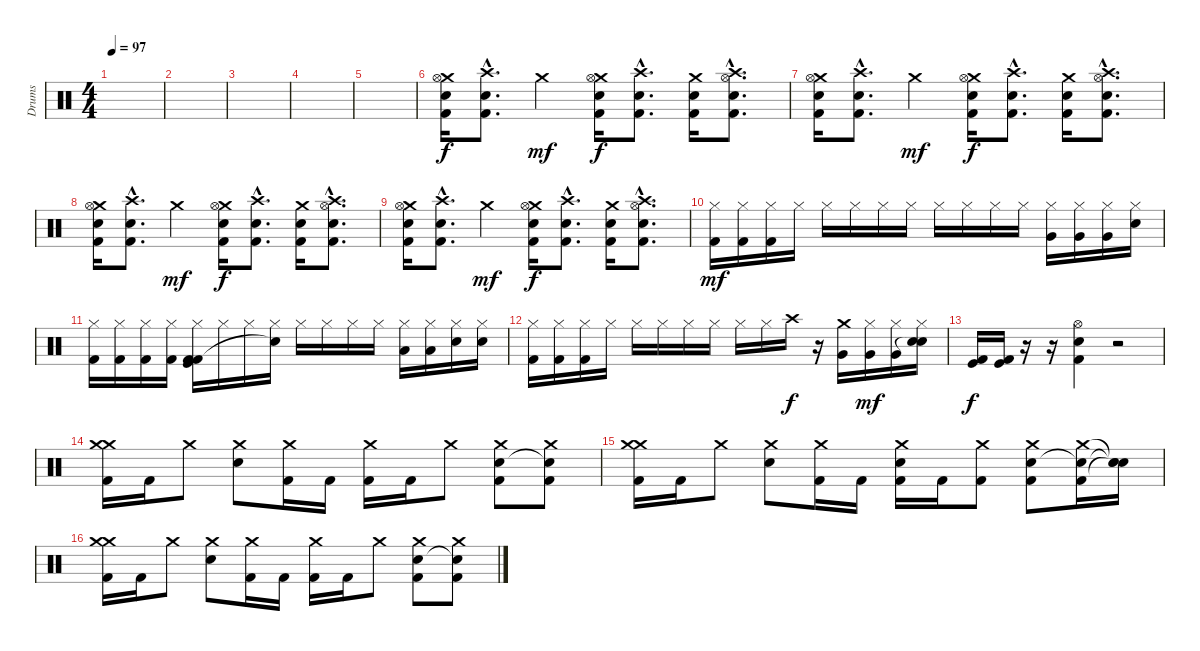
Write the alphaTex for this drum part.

\track ("Drums" "Drums") {instrument percussion}
\staff {score}
\articulation defaults
\ts (4 4)
\tempo 97
\clef neutral
\ks c
|
|
|
|
|
("Crash medium (hit)" "Hi-Hat (open)" "Snare (hit) 2" "Kick (hit) 2").16 ("Crash high (hit)"{hac} "Snare (hit) 2"{hac} "Kick (hit) 2"{hac}).8{d} "Crash medium (hit)".4{dy mf} ("Crash medium (hit)" "Hi-Hat (open)" "Snare (hit) 2" "Kick (hit) 2").16{dy f} ("Crash high (hit)"{hac} "Snare (hit) 2"{hac} "Kick (hit) 2"{hac}).8{d} ("Crash medium (hit)" "Snare (hit) 2" "Kick (hit) 2").16 ("Crash high (hit)"{hac} "Hi-Hat (open)"{hac} "Snare (hit) 2"{hac} "Kick (hit) 2"{hac}).8{d} |
("Crash medium (hit)" "Hi-Hat (open)" "Snare (hit) 2" "Kick (hit) 2").16 ("Crash high (hit)"{hac} "Snare (hit) 2"{hac} "Kick (hit) 2"{hac}).8{d} "Crash medium (hit)".4{dy mf} ("Crash medium (hit)" "Hi-Hat (open)" "Snare (hit) 2" "Kick (hit) 2").16{dy f} ("Crash high (hit)"{hac} "Snare (hit) 2"{hac} "Kick (hit) 2"{hac}).8{d} ("Crash medium (hit)" "Snare (hit) 2" "Kick (hit) 2").16 ("Crash high (hit)"{hac} "Hi-Hat (open)"{hac} "Snare (hit) 2"{hac} "Kick (hit) 2"{hac}).8{d} |
("Crash medium (hit)" "Hi-Hat (open)" "Snare (hit) 2" "Kick (hit) 2").16 ("Crash high (hit)"{hac} "Snare (hit) 2"{hac} "Kick (hit) 2"{hac}).8{d} "Crash medium (hit)".4{dy mf} ("Crash medium (hit)" "Hi-Hat (open)" "Snare (hit) 2" "Kick (hit) 2").16{dy f} ("Crash high (hit)"{hac} "Snare (hit) 2"{hac} "Kick (hit) 2"{hac}).8{d} ("Crash medium (hit)" "Snare (hit) 2" "Kick (hit) 2").16 ("Crash high (hit)"{hac} "Hi-Hat (open)"{hac} "Snare (hit) 2"{hac} "Kick (hit) 2"{hac}).8{d} |
("Crash medium (hit)" "Hi-Hat (open)" "Snare (hit) 2" "Kick (hit) 2").16 ("Crash high (hit)"{hac} "Snare (hit) 2"{hac} "Kick (hit) 2"{hac}).8{d} "Crash medium (hit)".4{dy mf} ("Crash medium (hit)" "Hi-Hat (open)" "Snare (hit) 2" "Kick (hit) 2").16{dy f} ("Crash high (hit)"{hac} "Snare (hit) 2"{hac} "Kick (hit) 2"{hac}).8{d} ("Crash medium (hit)" "Snare (hit) 2" "Kick (hit) 2").16 ("Crash high (hit)"{hac} "Hi-Hat (open)"{hac} "Snare (hit) 2"{hac} "Kick (hit) 2"{hac}).8{d} |
("Hi-Hat (closed)" "Kick (hit) 2").16{dy mf} ("Hi-Hat (closed)" "Kick (hit) 2").16 ("Hi-Hat (closed)" "Kick (hit) 2").16 "Hi-Hat (closed)".16 "Hi-Hat (closed)".16 "Hi-Hat (closed)".16 "Hi-Hat (closed)".16 "Hi-Hat (closed)".16 "Hi-Hat (closed)".16 "Hi-Hat (closed)".16 "Hi-Hat (closed)".16 "Hi-Hat (closed)".16 ("Hi-Hat (closed)" "Very Low Tom (hit)").16 ("Hi-Hat (closed)" "Very Low Tom (hit)").16 ("Hi-Hat (closed)" "Very Low Tom (hit)").16 ("Hi-Hat (closed)" "Snare (hit) 2").16 |
("Hi-Hat (closed)" "Kick (hit) 2").16 ("Hi-Hat (closed)" "Kick (hit) 2").16 ("Hi-Hat (closed)" "Kick (hit) 2").16 ("Hi-Hat (closed)" "Kick (hit) 2").16 ("Hi-Hat (closed)" "Kick (hit) 2" "Kick (hit)" "Kick (hit) 2").16 "Hi-Hat (closed)".16 "Hi-Hat (closed)".16 ("Hi-Hat (closed)" "Snare (hit)"{t}).16 "Hi-Hat (closed)".16 "Hi-Hat (closed)".16 "Hi-Hat (closed)".16 "Hi-Hat (closed)".16 ("Hi-Hat (closed)" "Low Tom (hit)").16 ("Hi-Hat (closed)" "Low Tom (hit)").16 ("Hi-Hat (closed)" "Snare (hit) 2").16 ("Hi-Hat (closed)" "Snare (hit) 2").16 |
("Hi-Hat (closed)" "Kick (hit) 2").16 ("Hi-Hat (closed)" "Kick (hit) 2").16 ("Hi-Hat (closed)" "Kick (hit) 2").16 "Hi-Hat (closed)".16 "Hi-Hat (closed)".16 "Hi-Hat (closed)".16 "Hi-Hat (closed)".16 "Hi-Hat (closed)".16 "Hi-Hat (closed)".16 "Hi-Hat (closed)".16 "Crash high (hit)".16{dy f} r.16 ("Crash medium (hit)" "Very Low Tom (hit)").16 ("Hi-Hat (closed)" "Very Low Tom (hit)").16{dy mf} ("Hi-Hat (closed)" "Very Low Tom (hit)").16 ("Hi-Hat (closed)" "Snare (hit)"{t} "Snare (hit) 2").16 |
("Kick (hit)" "Kick (hit) 2").16{dy f} ("Kick (hit)" "Kick (hit) 2").16 r.16 r.16 ("Hi-Hat (open)" "Electric Snare (hit)" "Kick (hit) 2").4 r.2 |
("Crash medium (hit)" "Crash medium (hit)" "Kick (hit) 2").16 "Kick (hit) 2".16 "Crash medium (hit)".8 ("Crash medium (hit)" "Electric Snare (hit)").8 ("Crash medium (hit)" "Kick (hit) 2").16 "Kick (hit) 2".16 ("Crash medium (hit)" "Kick (hit) 2").16 "Kick (hit) 2".16 "Crash medium (hit)".8 ("Crash medium (hit)" "Electric Snare (hit)" "Kick (hit) 2").8 ("Crash medium (hit)" "Snare (hit)"{t} "Kick (hit) 2").8 |
("Crash medium (hit)" "Crash medium (hit)" "Kick (hit) 2").16 "Kick (hit) 2".16 "Crash medium (hit)".8 ("Crash medium (hit)" "Electric Snare (hit)").8 ("Crash medium (hit)" "Kick (hit) 2").16 "Kick (hit) 2".16 ("Crash medium (hit)" "Electric Snare (hit)" "Kick (hit) 2").16 "Kick (hit) 2".16 ("Crash medium (hit)" "Kick (hit) 2").8 ("Crash medium (hit)" "Electric Snare (hit)" "Kick (hit) 2").8 ("Crash medium (hit)" "Snare (hit)"{t} "Kick (hit) 2").16 ("Snare (hit)"{t} "Snare (hit)"{t} "Snare (hit)"{t}).16 |
("Crash medium (hit)" "Crash medium (hit)" "Kick (hit) 2").16 "Kick (hit) 2".16 "Crash medium (hit)".8 ("Crash medium (hit)" "Electric Snare (hit)").8 ("Crash medium (hit)" "Kick (hit) 2").16 "Kick (hit) 2".16 ("Crash medium (hit)" "Kick (hit) 2").16 "Kick (hit) 2".16 "Crash medium (hit)".8 ("Crash medium (hit)" "Electric Snare (hit)" "Kick (hit) 2").8 ("Crash medium (hit)" "Snare (hit)"{t} "Kick (hit) 2").8
